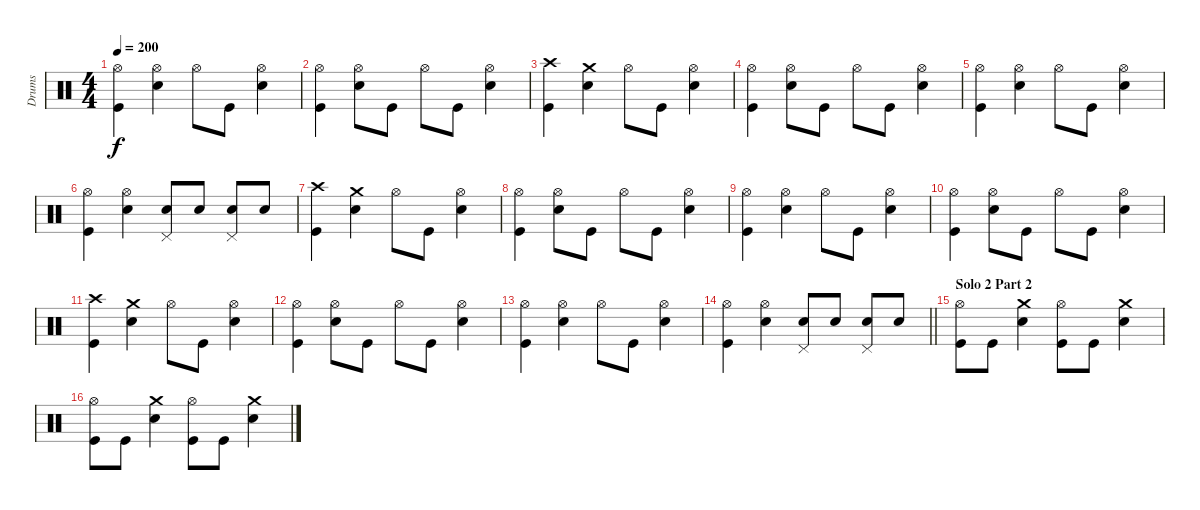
\track ("Drums" "Drums") {instrument percussion}
\staff {score}
\articulation defaults
\ts (4 4)
\tempo 200
\clef neutral
\ks c
("Hi-Hat (open)" "Kick (hit)").4{dy f} ("Hi-Hat (open)" "Electric Snare (hit)").4 "Hi-Hat (open)".8 "Kick (hit)".8 ("Hi-Hat (open)" "Electric Snare (hit)").4 |
("Hi-Hat (open)" "Kick (hit)").4 ("Hi-Hat (open)" "Electric Snare (hit)").8 "Kick (hit)".8 "Hi-Hat (open)".8 "Kick (hit)".8 ("Hi-Hat (open)" "Electric Snare (hit)").4 |
("Crash high (hit)" "Kick (hit)").4 ("Crash medium (hit)" "Electric Snare (hit)").4 "Hi-Hat (open)".8 "Kick (hit)".8 ("Hi-Hat (open)" "Electric Snare (hit)").4 |
("Hi-Hat (open)" "Kick (hit)").4 ("Hi-Hat (open)" "Electric Snare (hit)").8 "Kick (hit)".8 "Hi-Hat (open)".8 "Kick (hit)".8 ("Hi-Hat (open)" "Electric Snare (hit)").4 |
("Hi-Hat (open)" "Kick (hit)").4 ("Hi-Hat (open)" "Electric Snare (hit)").4 "Hi-Hat (open)".8 "Kick (hit)".8 ("Hi-Hat (open)" "Electric Snare (hit)").4 |
("Hi-Hat (open)" "Kick (hit)").4 ("Hi-Hat (open)" "Electric Snare (hit)").4 ("Electric Snare (hit)" "Pedal Hi-Hat (hit)").8 "Electric Snare (hit)".8 ("Electric Snare (hit)" "Pedal Hi-Hat (hit)").8 "Electric Snare (hit)".8 |
("Crash high (hit)" "Kick (hit)").4 ("Crash medium (hit)" "Electric Snare (hit)").4 "Hi-Hat (open)".8 "Kick (hit)".8 ("Hi-Hat (open)" "Electric Snare (hit)").4 |
("Hi-Hat (open)" "Kick (hit)").4 ("Hi-Hat (open)" "Electric Snare (hit)").8 "Kick (hit)".8 "Hi-Hat (open)".8 "Kick (hit)".8 ("Hi-Hat (open)" "Electric Snare (hit)").4 |
("Hi-Hat (open)" "Kick (hit)").4 ("Hi-Hat (open)" "Electric Snare (hit)").4 "Hi-Hat (open)".8 "Kick (hit)".8 ("Hi-Hat (open)" "Electric Snare (hit)").4 |
("Hi-Hat (open)" "Kick (hit)").4 ("Hi-Hat (open)" "Electric Snare (hit)").8 "Kick (hit)".8 "Hi-Hat (open)".8 "Kick (hit)".8 ("Hi-Hat (open)" "Electric Snare (hit)").4 |
("Crash high (hit)" "Kick (hit)").4 ("Crash medium (hit)" "Electric Snare (hit)").4 "Hi-Hat (open)".8 "Kick (hit)".8 ("Hi-Hat (open)" "Electric Snare (hit)").4 |
("Hi-Hat (open)" "Kick (hit)").4 ("Hi-Hat (open)" "Electric Snare (hit)").8 "Kick (hit)".8 "Hi-Hat (open)".8 "Kick (hit)".8 ("Hi-Hat (open)" "Electric Snare (hit)").4 |
("Hi-Hat (open)" "Kick (hit)").4 ("Hi-Hat (open)" "Electric Snare (hit)").4 "Hi-Hat (open)".8 "Kick (hit)".8 ("Hi-Hat (open)" "Electric Snare (hit)").4 |
\barLineRight lightlight
("Hi-Hat (open)" "Kick (hit)").4 ("Hi-Hat (open)" "Electric Snare (hit)").4 ("Electric Snare (hit)" "Pedal Hi-Hat (hit)").8 "Electric Snare (hit)".8 ("Electric Snare (hit)" "Pedal Hi-Hat (hit)").8 "Electric Snare (hit)".8 |
\section ("" "Solo 2 Part 2")
("Hi-Hat (open)" "Kick (hit)").8 "Kick (hit)".8 ("Crash medium (hit)" "Electric Snare (hit)").4 ("Hi-Hat (open)" "Kick (hit)").8 "Kick (hit)".8 ("Crash medium (hit)" "Electric Snare (hit)").4 |
("Hi-Hat (open)" "Kick (hit)").8 "Kick (hit)".8 ("Crash medium (hit)" "Electric Snare (hit)").4 ("Hi-Hat (open)" "Kick (hit)").8 "Kick (hit)".8 ("Crash medium (hit)" "Electric Snare (hit)").4
